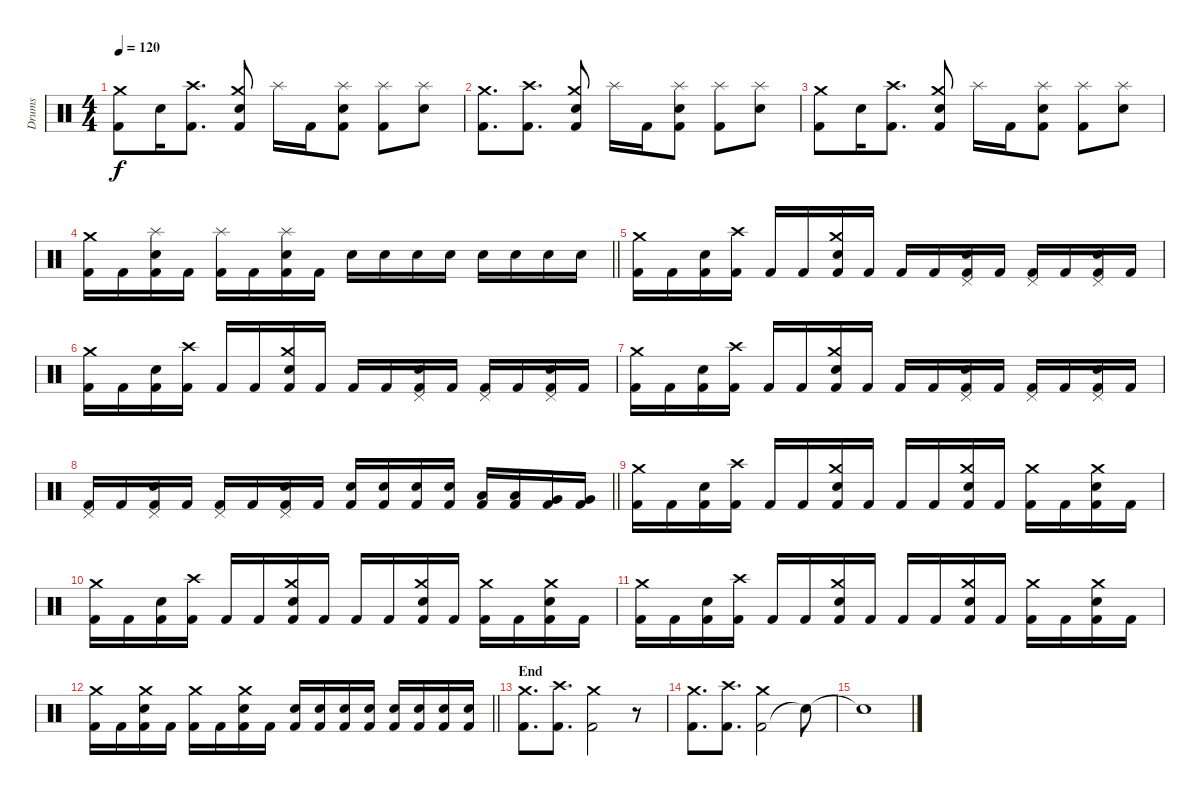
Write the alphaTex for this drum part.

\track ("Drums" "Drums") {instrument percussion}
\staff {score}
\articulation defaults
\ts (4 4)
\section ("" "")
\tempo 120
\clef neutral
\ks c
("Kick (hit) 2" "Crash medium (hit)").8{dy f} "Snare (hit) 2".16 ("Kick (hit) 2" "Crash high (hit)").8{d} ("Kick (hit) 2" "Snare (hit) 2" "Crash medium (hit)").8 "Splash (hit)".16 "Kick (hit) 2".16 ("Kick (hit) 2" "Snare (hit) 2" "Splash (hit)").8 ("Kick (hit) 2" "Splash (hit)").8 ("Snare (hit) 2" "Splash (hit)").8 |
("Kick (hit) 2" "Crash medium (hit)").8{d} ("Kick (hit) 2" "Crash high (hit)").8{d} ("Kick (hit) 2" "Snare (hit) 2" "Crash medium (hit)").8 "Splash (hit)".16 "Kick (hit) 2".16 ("Kick (hit) 2" "Snare (hit) 2" "Splash (hit)").8 ("Kick (hit) 2" "Splash (hit)").8 ("Snare (hit) 2" "Splash (hit)").8 |
("Kick (hit) 2" "Crash medium (hit)").8 "Snare (hit) 2".16 ("Kick (hit) 2" "Crash high (hit)").8{d} ("Kick (hit) 2" "Snare (hit) 2" "Crash medium (hit)").8 "Splash (hit)".16 "Kick (hit) 2".16 ("Kick (hit) 2" "Snare (hit) 2" "Splash (hit)").8 ("Kick (hit) 2" "Splash (hit)").8 ("Snare (hit) 2" "Splash (hit)").8 |
\barLineRight lightlight
("Kick (hit) 2" "Crash medium (hit)").16 "Kick (hit) 2".16 ("Kick (hit) 2" "Snare (hit) 2" "Splash (hit)").16 "Kick (hit) 2".16 ("Kick (hit) 2" "Splash (hit)").16 "Kick (hit) 2".16 ("Kick (hit) 2" "Snare (hit) 2" "Splash (hit)").16 "Kick (hit) 2".16 "Snare (hit) 2".16 "Snare (hit) 2".16 "Snare (hit) 2".16 "Snare (hit) 2".16 "Snare (hit) 2".16 "Snare (hit) 2".16 "Snare (hit) 2".16 "Snare (hit) 2".16 |
\section ("" "")
("Kick (hit) 2" "Crash medium (hit)").16 "Kick (hit) 2".16 ("Kick (hit) 2" "Snare (hit) 2").16 ("Kick (hit) 2" "Crash high (hit)").16 "Kick (hit) 2".16 "Kick (hit) 2".16 ("Kick (hit) 2" "Snare (hit) 2" "Crash medium (hit)").16 "Kick (hit) 2".16 "Kick (hit) 2".16 "Kick (hit) 2".16 ("Kick (hit) 2" "Snare (hit) 2" "Pedal Hi-Hat (hit)").16 "Kick (hit) 2".16 ("Kick (hit) 2" "Pedal Hi-Hat (hit)").16 "Kick (hit) 2".16 ("Kick (hit) 2" "Snare (hit) 2" "Pedal Hi-Hat (hit)").16 "Kick (hit) 2".16 |
("Kick (hit) 2" "Crash medium (hit)").16 "Kick (hit) 2".16 ("Kick (hit) 2" "Snare (hit) 2").16 ("Kick (hit) 2" "Crash high (hit)").16 "Kick (hit) 2".16 "Kick (hit) 2".16 ("Kick (hit) 2" "Snare (hit) 2" "Crash medium (hit)").16 "Kick (hit) 2".16 "Kick (hit) 2".16 "Kick (hit) 2".16 ("Kick (hit) 2" "Snare (hit) 2" "Pedal Hi-Hat (hit)").16 "Kick (hit) 2".16 ("Kick (hit) 2" "Pedal Hi-Hat (hit)").16 "Kick (hit) 2".16 ("Kick (hit) 2" "Snare (hit) 2" "Pedal Hi-Hat (hit)").16 "Kick (hit) 2".16 |
("Kick (hit) 2" "Crash medium (hit)").16 "Kick (hit) 2".16 ("Kick (hit) 2" "Snare (hit) 2").16 ("Kick (hit) 2" "Crash high (hit)").16 "Kick (hit) 2".16 "Kick (hit) 2".16 ("Kick (hit) 2" "Snare (hit) 2" "Crash medium (hit)").16 "Kick (hit) 2".16 "Kick (hit) 2".16 "Kick (hit) 2".16 ("Kick (hit) 2" "Snare (hit) 2" "Pedal Hi-Hat (hit)").16 "Kick (hit) 2".16 ("Kick (hit) 2" "Pedal Hi-Hat (hit)").16 "Kick (hit) 2".16 ("Kick (hit) 2" "Snare (hit) 2" "Pedal Hi-Hat (hit)").16 "Kick (hit) 2".16 |
\barLineRight lightlight
("Kick (hit) 2" "Pedal Hi-Hat (hit)").16 "Kick (hit) 2".16 ("Kick (hit) 2" "Snare (hit) 2" "Pedal Hi-Hat (hit)").16 "Kick (hit) 2".16 ("Kick (hit) 2" "Pedal Hi-Hat (hit)").16 "Kick (hit) 2".16 ("Kick (hit) 2" "Snare (hit) 2" "Pedal Hi-Hat (hit)").16 "Kick (hit) 2".16 ("Kick (hit) 2" "Snare (hit) 2").16 ("Kick (hit) 2" "Snare (hit) 2").16 ("Kick (hit) 2" "Snare (hit) 2").16 ("Kick (hit) 2" "Snare (hit) 2").16 ("Kick (hit) 2" "Low Tom (hit)").16 ("Kick (hit) 2" "Low Tom (hit)").16 ("Kick (hit) 2" "Very Low Tom (hit)").16 ("Kick (hit) 2" "Very Low Tom (hit)").16 |
\section ("" "")
("Kick (hit) 2" "Crash medium (hit)").16 "Kick (hit) 2".16 ("Kick (hit) 2" "Snare (hit) 2").16 ("Kick (hit) 2" "Crash high (hit)").16 "Kick (hit) 2".16 "Kick (hit) 2".16 ("Kick (hit) 2" "Snare (hit) 2" "Crash medium (hit)").16 "Kick (hit) 2".16 "Kick (hit) 2".16 "Kick (hit) 2".16 ("Kick (hit) 2" "Snare (hit) 2" "Crash medium (hit)").16 "Kick (hit) 2".16 ("Kick (hit) 2" "Crash medium (hit)").16 "Kick (hit) 2".16 ("Kick (hit) 2" "Snare (hit) 2" "Crash medium (hit)").16 "Kick (hit) 2".16 |
("Kick (hit) 2" "Crash medium (hit)").16 "Kick (hit) 2".16 ("Kick (hit) 2" "Snare (hit) 2").16 ("Kick (hit) 2" "Crash high (hit)").16 "Kick (hit) 2".16 "Kick (hit) 2".16 ("Kick (hit) 2" "Snare (hit) 2" "Crash medium (hit)").16 "Kick (hit) 2".16 "Kick (hit) 2".16 "Kick (hit) 2".16 ("Kick (hit) 2" "Snare (hit) 2" "Crash medium (hit)").16 "Kick (hit) 2".16 ("Kick (hit) 2" "Crash medium (hit)").16 "Kick (hit) 2".16 ("Kick (hit) 2" "Snare (hit) 2" "Crash medium (hit)").16 "Kick (hit) 2".16 |
("Kick (hit) 2" "Crash medium (hit)").16 "Kick (hit) 2".16 ("Kick (hit) 2" "Snare (hit) 2").16 ("Kick (hit) 2" "Crash high (hit)").16 "Kick (hit) 2".16 "Kick (hit) 2".16 ("Kick (hit) 2" "Snare (hit) 2" "Crash medium (hit)").16 "Kick (hit) 2".16 "Kick (hit) 2".16 "Kick (hit) 2".16 ("Kick (hit) 2" "Snare (hit) 2" "Crash medium (hit)").16 "Kick (hit) 2".16 ("Kick (hit) 2" "Crash medium (hit)").16 "Kick (hit) 2".16 ("Kick (hit) 2" "Snare (hit) 2" "Crash medium (hit)").16 "Kick (hit) 2".16 |
\barLineRight lightlight
("Kick (hit) 2" "Crash medium (hit)").16 "Kick (hit) 2".16 ("Kick (hit) 2" "Snare (hit) 2" "Crash medium (hit)").16 "Kick (hit) 2".16 ("Kick (hit) 2" "Crash medium (hit)").16 "Kick (hit) 2".16 ("Kick (hit) 2" "Snare (hit) 2" "Crash medium (hit)").16 "Kick (hit) 2".16 ("Kick (hit) 2" "Snare (hit) 2").16 ("Kick (hit) 2" "Snare (hit) 2").16 ("Kick (hit) 2" "Snare (hit) 2").16 ("Kick (hit) 2" "Snare (hit) 2").16 ("Kick (hit) 2" "Snare (hit) 2").16 ("Kick (hit) 2" "Snare (hit) 2").16 ("Kick (hit) 2" "Snare (hit) 2").16 ("Kick (hit) 2" "Snare (hit) 2").16 |
\section ("" "End")
("Kick (hit) 2" "Crash medium (hit)").8{d} ("Kick (hit) 2" "Crash high (hit)").8{d} ("Kick (hit) 2" "Crash medium (hit)").2 r.8 |
("Kick (hit) 2" "Crash medium (hit)").8{d} ("Kick (hit) 2" "Crash high (hit)").8{d} ("Kick (hit) 2" "Crash medium (hit)").2 "Snare (hit)"{t}.8 |
"Snare (hit)"{t}.1
